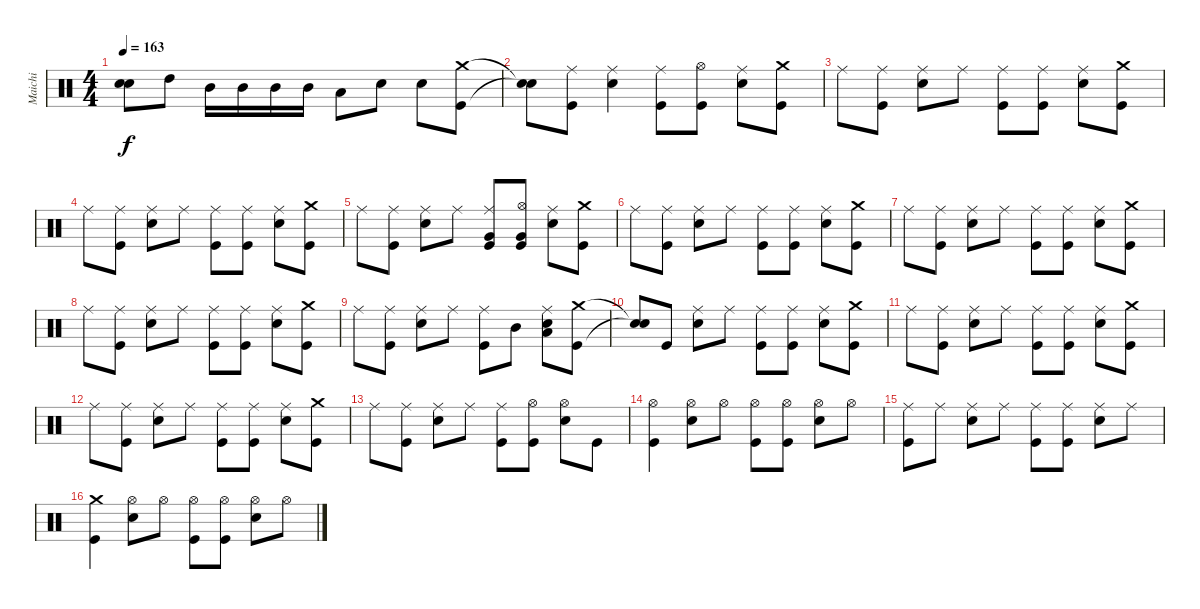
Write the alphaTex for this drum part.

\track ("Maichi" "Maichi") {instrument percussion}
\staff {score}
\articulation defaults
\ts (4 4)
\tempo 163
\clef neutral
\ks c
("Snare (hit)"{t} "Snare (hit)"{t}).8{dy f} "High Tom (hit)".8 "Mid Tom (hit)".16 "Mid Tom (hit)".16 "Mid Tom (hit)".16 "Mid Tom (hit)".16 "Low Tom (hit)".8 "Electric Snare (hit)".8 "Electric Snare (hit)".8 ("Kick (hit)" "Crash medium (hit)").8 |
("Snare (hit)"{t} "Snare (hit)"{t}).8 ("Ride (middle)" "Kick (hit)").8 ("Electric Snare (hit)" "Ride (middle)").4 ("Ride (middle)" "Kick (hit)").8 ("Kick (hit)" "Hi-Hat (open)").8 ("Electric Snare (hit)" "Ride (middle)").8 ("Crash medium (hit)" "Kick (hit)").8 |
"Ride (middle)".8 ("Ride (middle)" "Kick (hit)").8 ("Electric Snare (hit)" "Ride (middle)").8 "Ride (middle)".8 ("Ride (middle)" "Kick (hit)").8 ("Ride (middle)" "Kick (hit)").8 ("Ride (middle)" "Electric Snare (hit)").8 ("Crash medium (hit)" "Kick (hit)").8 |
"Ride (middle)".8 ("Ride (middle)" "Kick (hit)").8 ("Ride (middle)" "Electric Snare (hit)").8 "Ride (middle)".8 ("Ride (middle)" "Kick (hit)").8 ("Kick (hit)" "Ride (middle)").8 ("Ride (middle)" "Electric Snare (hit)").8 ("Crash medium (hit)" "Kick (hit)").8 |
"Ride (middle)".8 ("Kick (hit)" "Ride (middle)").8 ("Ride (middle)" "Electric Snare (hit)").8 "Ride (middle)".8 ("Very Low Tom (hit)" "Ride (middle)" "Kick (hit)").8 ("Hi-Hat (open)" "Very Low Tom (hit)" "Kick (hit)").8 ("Ride (middle)" "Electric Snare (hit)").8 ("Kick (hit)" "Crash medium (hit)").8 |
"Ride (middle)".8 ("Kick (hit)" "Ride (middle)").8 ("Electric Snare (hit)" "Ride (middle)").8 "Ride (middle)".8 ("Kick (hit)" "Ride (middle)").8 ("Ride (middle)" "Kick (hit)").8 ("Electric Snare (hit)" "Ride (middle)").8 ("Crash medium (hit)" "Kick (hit)").8 |
"Ride (middle)".8 ("Kick (hit)" "Ride (middle)").8 ("Ride (middle)" "Electric Snare (hit)").8 "Ride (middle)".8 ("Kick (hit)" "Ride (middle)").8 ("Ride (middle)" "Kick (hit)").8 ("Electric Snare (hit)" "Ride (middle)").8 ("Kick (hit)" "Crash medium (hit)").8 |
"Ride (middle)".8 ("Kick (hit)" "Ride (middle)").8 ("Electric Snare (hit)" "Ride (middle)").8 "Ride (middle)".8 ("Ride (middle)" "Kick (hit)").8 ("Kick (hit)" "Ride (middle)").8 ("Electric Snare (hit)" "Ride (middle)").8 ("Kick (hit)" "Crash medium (hit)").8 |
"Ride (middle)".8 ("Kick (hit)" "Ride (middle)").8 ("Electric Snare (hit)" "Ride (middle)").8 "Ride (middle)".8 ("Kick (hit)" "Ride (middle)").8 "Mid Tom (hit)".8 ("Low Tom (hit)" "Electric Snare (hit)" "Ride (middle)").8 ("Kick (hit)" "Crash medium (hit)").8 |
("Snare (hit)"{t} "Snare (hit)"{t}).8 "Kick (hit)".8 ("Electric Snare (hit)" "Ride (middle)").8 "Ride (middle)".8 ("Kick (hit)" "Ride (middle)").8 ("Ride (middle)" "Kick (hit)").8 ("Ride (middle)" "Electric Snare (hit)").8 ("Kick (hit)" "Crash medium (hit)").8 |
"Ride (middle)".8 ("Ride (middle)" "Kick (hit)").8 ("Ride (middle)" "Electric Snare (hit)").8 "Ride (middle)".8 ("Ride (middle)" "Kick (hit)").8 ("Kick (hit)" "Ride (middle)").8 ("Electric Snare (hit)" "Ride (middle)").8 ("Kick (hit)" "Crash medium (hit)").8 |
"Ride (middle)".8 ("Ride (middle)" "Kick (hit)").8 ("Ride (middle)" "Electric Snare (hit)").8 "Ride (middle)".8 ("Ride (middle)" "Kick (hit)").8 ("Ride (middle)" "Kick (hit)").8 ("Electric Snare (hit)" "Ride (middle)").8 ("Crash medium (hit)" "Kick (hit)").8 |
"Ride (middle)".8 ("Ride (middle)" "Kick (hit)").8 ("Ride (middle)" "Electric Snare (hit)").8 "Ride (middle)".8 ("Ride (middle)" "Kick (hit)").8 ("Kick (hit)" "Hi-Hat (open)").8 ("Electric Snare (hit)" "Hi-Hat (open)").8 "Kick (hit)".8 |
("Kick (hit)" "Hi-Hat (open)").4 ("Electric Snare (hit)" "Hi-Hat (open)").8 "Hi-Hat (open)".8 ("Hi-Hat (open)" "Kick (hit)").8 ("Kick (hit)" "Hi-Hat (open)").8 ("Electric Snare (hit)" "Hi-Hat (open)").8 "Hi-Hat (open)".8 |
("Ride (middle)" "Kick (hit)").8 "Ride (middle)".8 ("Electric Snare (hit)" "Ride (middle)").8 "Ride (middle)".8 ("Kick (hit)" "Ride (middle)").8 ("Ride (middle)" "Kick (hit)").8 ("Electric Snare (hit)" "Ride (middle)").8 "Ride (middle)".8 |
("Kick (hit)" "Crash medium (hit)").4 ("Hi-Hat (open)" "Electric Snare (hit)").8 "Hi-Hat (open)".8 ("Kick (hit)" "Hi-Hat (open)").8 ("Hi-Hat (open)" "Kick (hit)").8 ("Electric Snare (hit)" "Hi-Hat (open)").8 "Hi-Hat (open)".8
